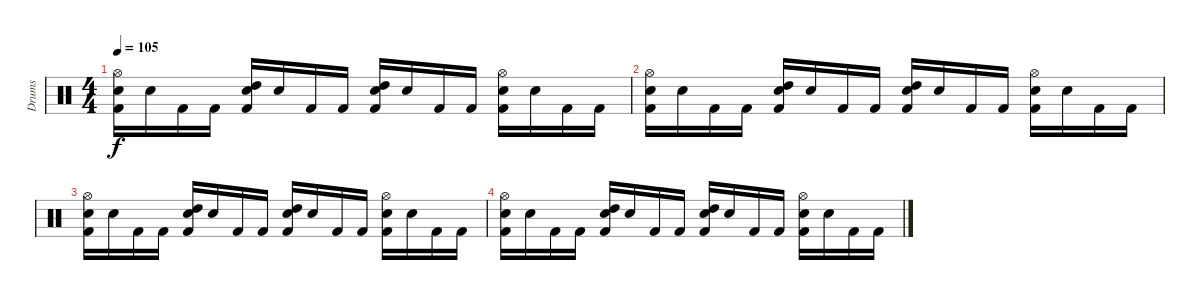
\track ("Drums" "Drums") {instrument percussion}
\staff {score}
\articulation defaults
\ts (4 4)
\tempo 105
\clef neutral
\ks c
("Kick (hit) 2" "Snare (hit) 2" "Hi-Hat (open)").16{dy f} "Snare (hit) 2".16 "Kick (hit) 2".16 "Kick (hit) 2".16 ("Kick (hit) 2" "Snare (hit) 2" "High Tom (hit)").16 "Snare (hit) 2".16 "Kick (hit) 2".16 "Kick (hit) 2".16 ("Kick (hit) 2" "Snare (hit) 2" "High Tom (hit)").16 "Snare (hit) 2".16 "Kick (hit) 2".16 "Kick (hit) 2".16 ("Kick (hit) 2" "Snare (hit) 2" "Hi-Hat (open)").16 "Snare (hit) 2".16 "Kick (hit) 2".16 "Kick (hit) 2".16 |
("Kick (hit) 2" "Snare (hit) 2" "Hi-Hat (open)").16 "Snare (hit) 2".16 "Kick (hit) 2".16 "Kick (hit) 2".16 ("Kick (hit) 2" "Snare (hit) 2" "High Tom (hit)").16 "Snare (hit) 2".16 "Kick (hit) 2".16 "Kick (hit) 2".16 ("Kick (hit) 2" "Snare (hit) 2" "High Tom (hit)").16 "Snare (hit) 2".16 "Kick (hit) 2".16 "Kick (hit) 2".16 ("Kick (hit) 2" "Snare (hit) 2" "Hi-Hat (open)").16 "Snare (hit) 2".16 "Kick (hit) 2".16 "Kick (hit) 2".16 |
("Kick (hit) 2" "Snare (hit) 2" "Hi-Hat (open)").16 "Snare (hit) 2".16 "Kick (hit) 2".16 "Kick (hit) 2".16 ("Kick (hit) 2" "Snare (hit) 2" "High Tom (hit)").16 "Snare (hit) 2".16 "Kick (hit) 2".16 "Kick (hit) 2".16 ("Kick (hit) 2" "Snare (hit) 2" "High Tom (hit)").16 "Snare (hit) 2".16 "Kick (hit) 2".16 "Kick (hit) 2".16 ("Kick (hit) 2" "Snare (hit) 2" "Hi-Hat (open)").16 "Snare (hit) 2".16 "Kick (hit) 2".16 "Kick (hit) 2".16 |
("Kick (hit) 2" "Snare (hit) 2" "Hi-Hat (open)").16 "Snare (hit) 2".16 "Kick (hit) 2".16 "Kick (hit) 2".16 ("Kick (hit) 2" "Snare (hit) 2" "High Tom (hit)").16 "Snare (hit) 2".16 "Kick (hit) 2".16 "Kick (hit) 2".16 ("Kick (hit) 2" "Snare (hit) 2" "High Tom (hit)").16 "Snare (hit) 2".16 "Kick (hit) 2".16 "Kick (hit) 2".16 ("Kick (hit) 2" "Snare (hit) 2" "Hi-Hat (open)").16 "Snare (hit) 2".16 "Kick (hit) 2".16 "Kick (hit) 2".16
